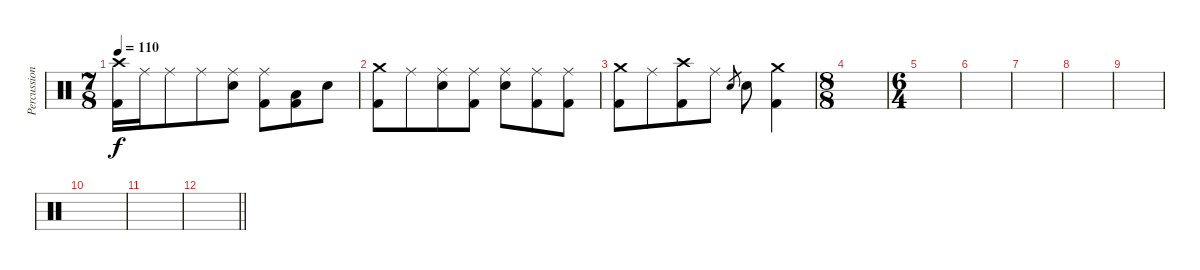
\track ("Percussion" "Percussion") {instrument percussion}
\staff {score}
\articulation defaults
\ts (7 8)
\tempo 110
\clef neutral
\ks c
("Crash high (hit)" "Kick (hit) 2").16{dy f} "Ride (middle)".16 "Ride (middle)".8 "Ride (middle)".8 ("Ride (middle)" "Electric Snare (hit)").8 ("Ride (middle)" "Kick (hit) 2").8 ("Kick (hit) 2" "Low Floor Tom (hit)").8 "Electric Snare (hit)".8 |
("Crash medium (hit)" "Kick (hit) 2").8 "Ride (middle)".8 ("Ride (middle)" "Electric Snare (hit)").8 ("Ride (middle)" "Kick (hit) 2").8 ("Ride (middle)" "Electric Snare (hit)").8 ("Ride (middle)" "Kick (hit) 2").8 ("Ride (middle)" "Kick (hit) 2").8 |
("Crash medium (hit)" "Kick (hit) 2").8 "Ride (middle)".8 ("Crash high (hit)" "Kick (hit) 2").8 "Ride (middle)".8 "Electric Snare (hit)".8{gr} "Electric Snare (hit)".8 ("Crash medium (hit)" "Kick (hit) 2").4 |
\ts (8 8)
|
\ts (6 4)
|
|
|
|
|
|
|
\barLineRight lightlight
